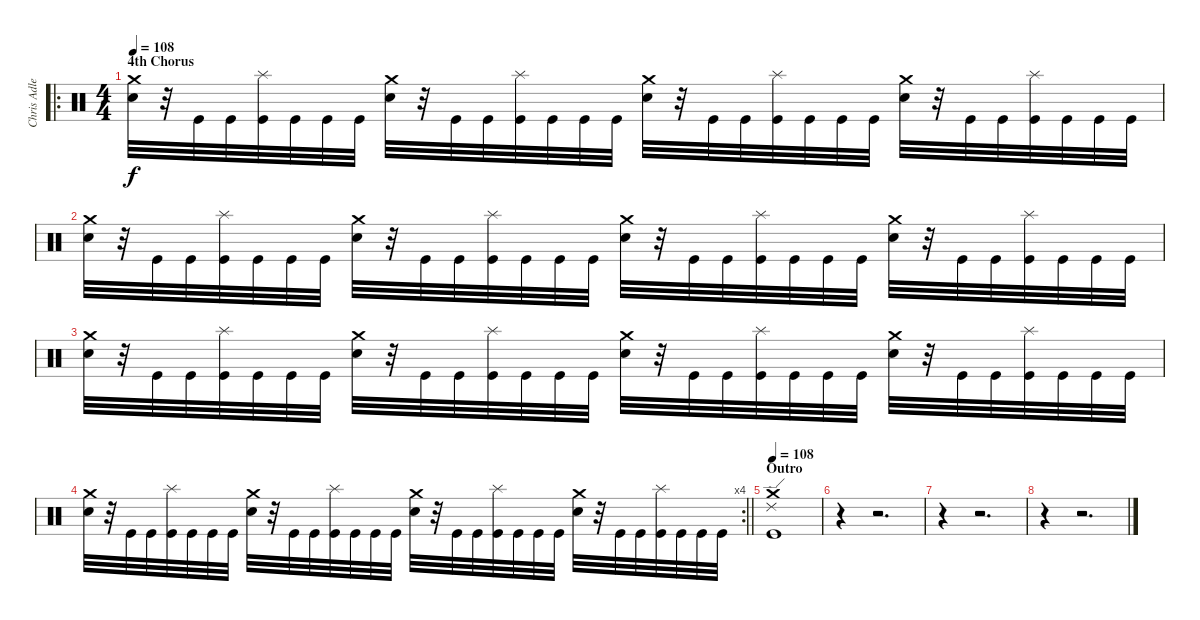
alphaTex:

\track ("Chris Adler (Drumkit)" "Chris Adle") {instrument percussion}
\staff {score}
\articulation defaults
\ro
\ts (4 4)
\section ("" "4th Chorus")
\tempo 108
\clef neutral
\ks c
("Snare (hit) 2" "Crash medium (hit)").32{dy f} r.32 "Kick (hit)".32 "Kick (hit)".32 ("Kick (hit)" "Splash (hit)").32 "Kick (hit)".32 "Kick (hit)".32 "Kick (hit)".32 ("Snare (hit) 2" "Crash medium (hit)").32 r.32 "Kick (hit)".32 "Kick (hit)".32 ("Kick (hit)" "Splash (hit)").32 "Kick (hit)".32 "Kick (hit)".32 "Kick (hit)".32 ("Snare (hit) 2" "Crash medium (hit)").32 r.32 "Kick (hit)".32 "Kick (hit)".32 ("Kick (hit)" "Splash (hit)").32 "Kick (hit)".32 "Kick (hit)".32 "Kick (hit)".32 ("Snare (hit) 2" "Crash medium (hit)").32 r.32 "Kick (hit)".32 "Kick (hit)".32 ("Kick (hit)" "Splash (hit)").32 "Kick (hit)".32 "Kick (hit)".32 "Kick (hit)".32 |
("Snare (hit) 2" "Crash medium (hit)").32 r.32 "Kick (hit)".32 "Kick (hit)".32 ("Kick (hit)" "Splash (hit)").32 "Kick (hit)".32 "Kick (hit)".32 "Kick (hit)".32 ("Snare (hit) 2" "Crash medium (hit)").32 r.32 "Kick (hit)".32 "Kick (hit)".32 ("Kick (hit)" "Splash (hit)").32 "Kick (hit)".32 "Kick (hit)".32 "Kick (hit)".32 ("Snare (hit) 2" "Crash medium (hit)").32 r.32 "Kick (hit)".32 "Kick (hit)".32 ("Kick (hit)" "Splash (hit)").32 "Kick (hit)".32 "Kick (hit)".32 "Kick (hit)".32 ("Snare (hit) 2" "Crash medium (hit)").32 r.32 "Kick (hit)".32 "Kick (hit)".32 ("Kick (hit)" "Splash (hit)").32 "Kick (hit)".32 "Kick (hit)".32 "Kick (hit)".32 |
("Snare (hit) 2" "Crash medium (hit)").32 r.32 "Kick (hit)".32 "Kick (hit)".32 ("Kick (hit)" "Splash (hit)").32 "Kick (hit)".32 "Kick (hit)".32 "Kick (hit)".32 ("Snare (hit) 2" "Crash medium (hit)").32 r.32 "Kick (hit)".32 "Kick (hit)".32 ("Kick (hit)" "Splash (hit)").32 "Kick (hit)".32 "Kick (hit)".32 "Kick (hit)".32 ("Snare (hit) 2" "Crash medium (hit)").32 r.32 "Kick (hit)".32 "Kick (hit)".32 ("Kick (hit)" "Splash (hit)").32 "Kick (hit)".32 "Kick (hit)".32 "Kick (hit)".32 ("Snare (hit) 2" "Crash medium (hit)").32 r.32 "Kick (hit)".32 "Kick (hit)".32 ("Kick (hit)" "Splash (hit)").32 "Kick (hit)".32 "Kick (hit)".32 "Kick (hit)".32 |
\rc 4
\barLineRight lightlight
("Snare (hit) 2" "Crash medium (hit)").32 r.32 "Kick (hit)".32 "Kick (hit)".32 ("Kick (hit)" "Splash (hit)").32 "Kick (hit)".32 "Kick (hit)".32 "Kick (hit)".32 ("Snare (hit) 2" "Crash medium (hit)").32 r.32 "Kick (hit)".32 "Kick (hit)".32 ("Kick (hit)" "Splash (hit)").32 "Kick (hit)".32 "Kick (hit)".32 "Kick (hit)".32 ("Snare (hit) 2" "Crash medium (hit)").32 r.32 "Kick (hit)".32 "Kick (hit)".32 ("Kick (hit)" "Splash (hit)").32 "Kick (hit)".32 "Kick (hit)".32 "Kick (hit)".32 ("Snare (hit) 2" "Crash medium (hit)").32 r.32 "Kick (hit)".32 "Kick (hit)".32 ("Kick (hit)" "Splash (hit)").32 "Kick (hit)".32 "Kick (hit)".32 "Kick (hit)".32 |
\section ("" "Outro")
\tempo 108
("Kick (hit)" "Crash medium (hit)" "Ride (edge) 2").1 |
r.4 r.2{d} |
r.4 r.2{d} |
r.4 r.2{d}
